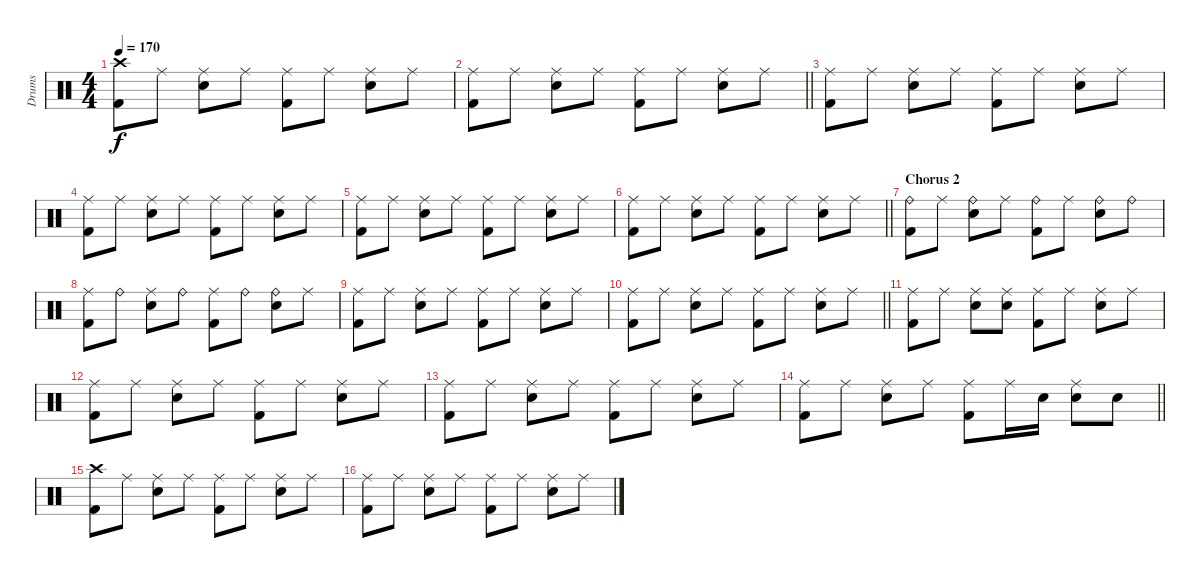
\track ("Drums" "Drums") {instrument percussion}
\staff {score}
\articulation defaults
\ts (4 4)
\tempo 170
\clef neutral
\ks c
("Crash high (hit)" "Kick (hit) 2").8{dy f} "Ride (middle)".8 ("Ride (middle)" "Snare (hit) 2").8 "Ride (middle)".8 ("Ride (middle)" "Kick (hit) 2").8 "Ride (middle)".8 ("Ride (middle)" "Snare (hit) 2").8 "Ride (middle)".8 |
\barLineRight lightlight
("Ride (middle)" "Kick (hit) 2").8 "Ride (middle)".8 ("Ride (middle)" "Snare (hit) 2").8 "Ride (middle)".8 ("Ride (middle)" "Kick (hit) 2").8 "Ride (middle)".8 ("Ride (middle)" "Snare (hit) 2").8 "Ride (middle)".8 |
("Ride (middle)" "Kick (hit) 2").8 "Ride (middle)".8 ("Ride (middle)" "Snare (hit) 2").8 "Ride (middle)".8 ("Ride (middle)" "Kick (hit) 2").8 "Ride (middle)".8 ("Ride (middle)" "Snare (hit) 2").8 "Ride (middle)".8 |
("Ride (middle)" "Kick (hit) 2").8 "Ride (middle)".8 ("Ride (middle)" "Snare (hit) 2").8 "Ride (middle)".8 ("Ride (middle)" "Kick (hit) 2").8 "Ride (middle)".8 ("Ride (middle)" "Snare (hit) 2").8 "Ride (middle)".8 |
("Ride (middle)" "Kick (hit) 2").8 "Ride (middle)".8 ("Ride (middle)" "Snare (hit) 2").8 "Ride (middle)".8 ("Ride (middle)" "Kick (hit) 2").8 "Ride (middle)".8 ("Ride (middle)" "Snare (hit) 2").8 "Ride (middle)".8 |
\barLineRight lightlight
("Ride (middle)" "Kick (hit) 2").8 "Ride (middle)".8 ("Ride (middle)" "Snare (hit) 2").8 "Ride (middle)".8 ("Ride (middle)" "Kick (hit) 2").8 "Ride (middle)".8 ("Ride (middle)" "Snare (hit) 2").8 "Ride (middle)".8 |
\section ("" "Chorus 2")
("Ride (bell)" "Kick (hit) 2").8 "Ride (middle)".8 ("Ride (bell)" "Snare (hit) 2").8 "Ride (middle)".8 ("Ride (bell)" "Kick (hit) 2").8 "Ride (middle)".8 ("Ride (bell)" "Snare (hit) 2").8 "Ride (bell)".8 |
("Ride (middle)" "Kick (hit) 2").8 "Ride (bell)".8 ("Ride (middle)" "Snare (hit) 2").8 "Ride (bell)".8 ("Ride (middle)" "Kick (hit) 2").8 "Ride (bell)".8 ("Ride (bell)" "Snare (hit) 2").8 "Ride (middle)".8 |
("Ride (middle)" "Kick (hit) 2").8 "Ride (middle)".8 ("Ride (middle)" "Snare (hit) 2").8 "Ride (middle)".8 ("Ride (middle)" "Kick (hit) 2").8 "Ride (middle)".8 ("Ride (middle)" "Snare (hit) 2").8 "Ride (middle)".8 |
\barLineRight lightlight
("Ride (middle)" "Kick (hit) 2").8 "Ride (middle)".8 ("Ride (middle)" "Snare (hit) 2").8 "Ride (middle)".8 ("Ride (middle)" "Kick (hit) 2").8 "Ride (middle)".8 ("Ride (middle)" "Snare (hit) 2").8 "Ride (middle)".8 |
("Ride (middle)" "Kick (hit) 2").8 "Ride (middle)".8 ("Ride (middle)" "Snare (hit) 2").8 ("Ride (middle)" "Snare (hit) 2").8 ("Ride (middle)" "Kick (hit) 2").8 "Ride (middle)".8 ("Ride (middle)" "Snare (hit) 2").8 "Ride (middle)".8 |
("Ride (middle)" "Kick (hit) 2").8 "Ride (middle)".8 ("Ride (middle)" "Snare (hit) 2").8 "Ride (middle)".8 ("Ride (middle)" "Kick (hit) 2").8 "Ride (middle)".8 ("Ride (middle)" "Snare (hit) 2").8 "Ride (middle)".8 |
("Ride (middle)" "Kick (hit) 2").8 "Ride (middle)".8 ("Ride (middle)" "Snare (hit) 2").8 "Ride (middle)".8 ("Ride (middle)" "Kick (hit) 2").8 "Ride (middle)".8 ("Ride (middle)" "Snare (hit) 2").8 "Ride (middle)".8 |
\barLineRight lightlight
("Ride (middle)" "Kick (hit) 2").8 "Ride (middle)".8 ("Ride (middle)" "Snare (hit) 2").8 "Ride (middle)".8 ("Ride (middle)" "Kick (hit) 2").8 "Ride (middle)".16 "Snare (hit) 2".16 ("Ride (middle)" "Snare (hit) 2").8 "Snare (hit) 2".8 |
("Crash high (hit)" "Kick (hit) 2").8 "Ride (middle)".8 ("Ride (middle)" "Snare (hit) 2").8 "Ride (middle)".8 ("Ride (middle)" "Kick (hit) 2").8 "Ride (middle)".8 ("Ride (middle)" "Snare (hit) 2").8 "Ride (middle)".8 |
("Ride (middle)" "Kick (hit) 2").8 "Ride (middle)".8 ("Ride (middle)" "Snare (hit) 2").8 "Ride (middle)".8 ("Ride (middle)" "Kick (hit) 2").8 "Ride (middle)".8 ("Ride (middle)" "Snare (hit) 2").8 "Ride (middle)".8
